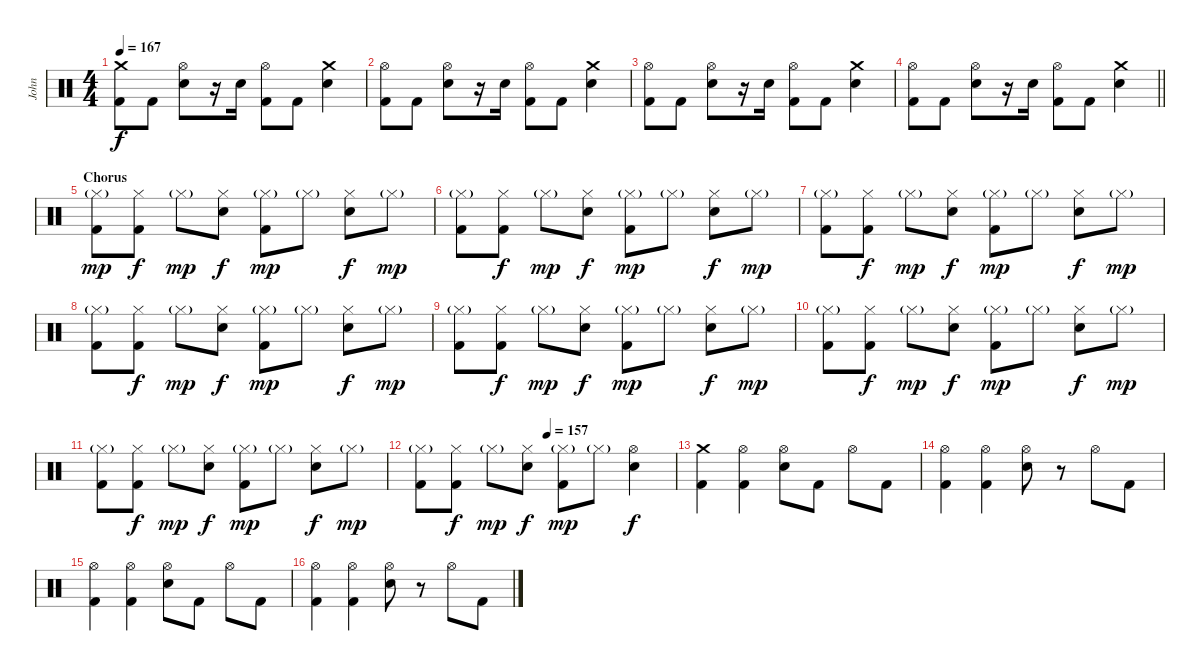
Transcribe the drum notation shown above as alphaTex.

\track ("John" "John") {instrument percussion}
\staff {score}
\articulation defaults
\ts (4 4)
\tempo 167
\clef neutral
\ks c
("Crash medium (hit)" "Kick (hit) 2").8{dy f} "Kick (hit) 2".8 ("Hi-Hat (open)" "Electric Snare (hit)").8 r.16 "Electric Snare (hit)".16 ("Hi-Hat (open)" "Kick (hit) 2").8 "Kick (hit) 2".8 ("Crash medium (hit)" "Electric Snare (hit)").4 |
("Hi-Hat (open)" "Kick (hit) 2").8 "Kick (hit) 2".8 ("Hi-Hat (open)" "Electric Snare (hit)").8 r.16 "Electric Snare (hit)".16 ("Hi-Hat (open)" "Kick (hit) 2").8 "Kick (hit) 2".8 ("Crash medium (hit)" "Electric Snare (hit)").4 |
("Hi-Hat (open)" "Kick (hit) 2").8 "Kick (hit) 2".8 ("Hi-Hat (open)" "Electric Snare (hit)").8 r.16 "Electric Snare (hit)".16 ("Hi-Hat (open)" "Kick (hit) 2").8 "Kick (hit) 2".8 ("Crash medium (hit)" "Electric Snare (hit)").4 |
\barLineRight lightlight
("Hi-Hat (open)" "Kick (hit) 2").8 "Kick (hit) 2".8 ("Hi-Hat (open)" "Electric Snare (hit)").8 r.16 "Electric Snare (hit)".16 ("Hi-Hat (open)" "Kick (hit) 2").8 "Kick (hit) 2".8 ("Crash medium (hit)" "Electric Snare (hit)").4 |
\section ("" "Chorus")
("Hi-Hat (closed)"{g} "Kick (hit) 2").8{dy mp} ("Hi-Hat (closed)" "Kick (hit) 2").8{dy f} "Hi-Hat (closed)"{g}.8{dy mp} ("Hi-Hat (closed)" "Electric Snare (hit)").8{dy f} ("Hi-Hat (closed)"{g} "Kick (hit) 2").8{dy mp} "Hi-Hat (closed)"{g}.8 ("Hi-Hat (closed)" "Electric Snare (hit)").8{dy f} "Hi-Hat (closed)"{g}.8{dy mp} |
("Hi-Hat (closed)"{g} "Kick (hit) 2").8 ("Hi-Hat (closed)" "Kick (hit) 2").8{dy f} "Hi-Hat (closed)"{g}.8{dy mp} ("Hi-Hat (closed)" "Electric Snare (hit)").8{dy f} ("Hi-Hat (closed)"{g} "Kick (hit) 2").8{dy mp} "Hi-Hat (closed)"{g}.8 ("Hi-Hat (closed)" "Electric Snare (hit)").8{dy f} "Hi-Hat (closed)"{g}.8{dy mp} |
("Hi-Hat (closed)"{g} "Kick (hit) 2").8 ("Hi-Hat (closed)" "Kick (hit) 2").8{dy f} "Hi-Hat (closed)"{g}.8{dy mp} ("Hi-Hat (closed)" "Electric Snare (hit)").8{dy f} ("Hi-Hat (closed)"{g} "Kick (hit) 2").8{dy mp} "Hi-Hat (closed)"{g}.8 ("Hi-Hat (closed)" "Electric Snare (hit)").8{dy f} "Hi-Hat (closed)"{g}.8{dy mp} |
("Hi-Hat (closed)"{g} "Kick (hit) 2").8 ("Hi-Hat (closed)" "Kick (hit) 2").8{dy f} "Hi-Hat (closed)"{g}.8{dy mp} ("Hi-Hat (closed)" "Electric Snare (hit)").8{dy f} ("Hi-Hat (closed)"{g} "Kick (hit) 2").8{dy mp} "Hi-Hat (closed)"{g}.8 ("Hi-Hat (closed)" "Electric Snare (hit)").8{dy f} "Hi-Hat (closed)"{g}.8{dy mp} |
("Hi-Hat (closed)"{g} "Kick (hit) 2").8 ("Hi-Hat (closed)" "Kick (hit) 2").8{dy f} "Hi-Hat (closed)"{g}.8{dy mp} ("Hi-Hat (closed)" "Electric Snare (hit)").8{dy f} ("Hi-Hat (closed)"{g} "Kick (hit) 2").8{dy mp} "Hi-Hat (closed)"{g}.8 ("Hi-Hat (closed)" "Electric Snare (hit)").8{dy f} "Hi-Hat (closed)"{g}.8{dy mp} |
("Hi-Hat (closed)"{g} "Kick (hit) 2").8 ("Hi-Hat (closed)" "Kick (hit) 2").8{dy f} "Hi-Hat (closed)"{g}.8{dy mp} ("Hi-Hat (closed)" "Electric Snare (hit)").8{dy f} ("Hi-Hat (closed)"{g} "Kick (hit) 2").8{dy mp} "Hi-Hat (closed)"{g}.8 ("Hi-Hat (closed)" "Electric Snare (hit)").8{dy f} "Hi-Hat (closed)"{g}.8{dy mp} |
("Hi-Hat (closed)"{g} "Kick (hit) 2").8 ("Hi-Hat (closed)" "Kick (hit) 2").8{dy f} "Hi-Hat (closed)"{g}.8{dy mp} ("Hi-Hat (closed)" "Electric Snare (hit)").8{dy f} ("Hi-Hat (closed)"{g} "Kick (hit) 2").8{dy mp} "Hi-Hat (closed)"{g}.8 ("Hi-Hat (closed)" "Electric Snare (hit)").8{dy f} "Hi-Hat (closed)"{g}.8{dy mp} |
\tempo (157 0.5)
("Hi-Hat (closed)"{g} "Kick (hit) 2").8 ("Hi-Hat (closed)" "Kick (hit) 2").8{dy f} "Hi-Hat (closed)"{g}.8{dy mp} ("Hi-Hat (closed)" "Electric Snare (hit)").8{dy f} ("Hi-Hat (closed)"{g} "Kick (hit) 2").8{dy mp} "Hi-Hat (closed)"{g}.8 ("Hi-Hat (open)" "Electric Snare (hit)").4{dy f} |
("Crash medium (hit)" "Kick (hit) 2").4 ("Hi-Hat (open)" "Kick (hit) 2").4 ("Hi-Hat (open)" "Electric Snare (hit)").8 "Kick (hit) 2".8 "Hi-Hat (open)".8 "Kick (hit) 2".8 |
("Hi-Hat (open)" "Kick (hit) 2").4 ("Hi-Hat (open)" "Kick (hit) 2").4 ("Hi-Hat (open)" "Electric Snare (hit)").8 r.8 "Hi-Hat (open)".8 "Kick (hit) 2".8 |
("Hi-Hat (open)" "Kick (hit) 2").4 ("Hi-Hat (open)" "Kick (hit) 2").4 ("Hi-Hat (open)" "Electric Snare (hit)").8 "Kick (hit) 2".8 "Hi-Hat (open)".8 "Kick (hit) 2".8 |
("Hi-Hat (open)" "Kick (hit) 2").4 ("Hi-Hat (open)" "Kick (hit) 2").4 ("Hi-Hat (open)" "Electric Snare (hit)").8 r.8 "Hi-Hat (open)".8 "Kick (hit) 2".8
